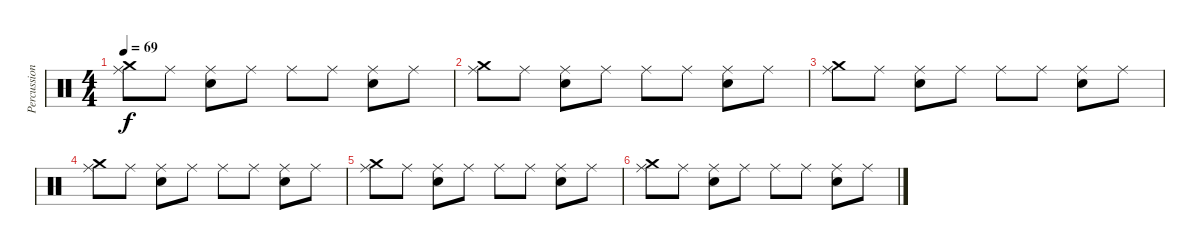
\track ("Percussion" "Percussion") {instrument percussion}
\staff {score}
\articulation defaults
\ts (4 4)
\tempo 69
\clef neutral
\ks c
("Ride (middle)" "Crash medium (hit)").8{dy f volume 11} "Ride (middle)".8 ("Ride (middle)" "Electric Snare (hit)").8 "Ride (middle)".8 "Ride (middle)".8{volume 10} "Ride (middle)".8 ("Ride (middle)" "Electric Snare (hit)").8 "Ride (middle)".8 |
("Ride (middle)" "Crash medium (hit)").8{volume 9} "Ride (middle)".8 ("Ride (middle)" "Electric Snare (hit)").8 "Ride (middle)".8 "Ride (middle)".8{volume 8} "Ride (middle)".8 ("Ride (middle)" "Electric Snare (hit)").8 "Ride (middle)".8 |
("Ride (middle)" "Crash medium (hit)").8{volume 7} "Ride (middle)".8 ("Ride (middle)" "Electric Snare (hit)").8 "Ride (middle)".8 "Ride (middle)".8{volume 6} "Ride (middle)".8 ("Ride (middle)" "Electric Snare (hit)").8 "Ride (middle)".8 |
("Ride (middle)" "Crash medium (hit)").8{volume 5} "Ride (middle)".8 ("Ride (middle)" "Electric Snare (hit)").8 "Ride (middle)".8 "Ride (middle)".8{volume 4} "Ride (middle)".8 ("Ride (middle)" "Electric Snare (hit)").8 "Ride (middle)".8 |
("Ride (middle)" "Crash medium (hit)").8{volume 3} "Ride (middle)".8 ("Ride (middle)" "Electric Snare (hit)").8 "Ride (middle)".8 "Ride (middle)".8{volume 2} "Ride (middle)".8 ("Ride (middle)" "Electric Snare (hit)").8 "Ride (middle)".8 |
("Ride (middle)" "Crash medium (hit)").8{volume 1} "Ride (middle)".8 ("Ride (middle)" "Electric Snare (hit)").8 "Ride (middle)".8 "Ride (middle)".8{volume 0} "Ride (middle)".8 ("Ride (middle)" "Electric Snare (hit)").8 "Ride (middle)".8
